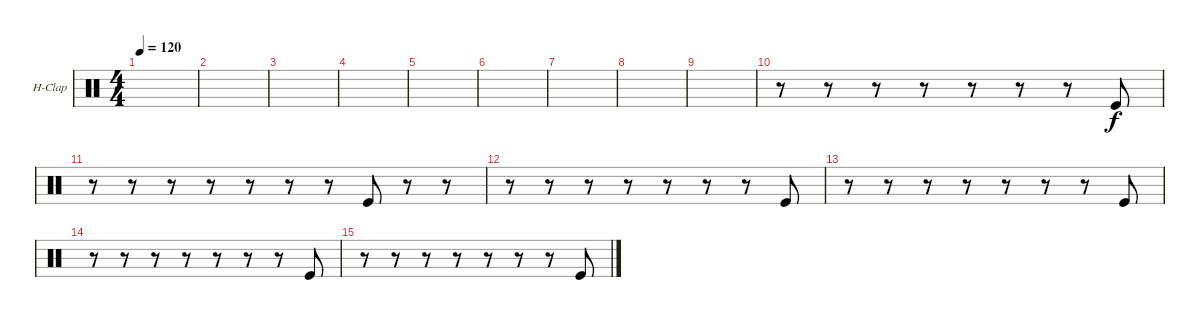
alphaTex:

\defaultSystemsLayout 4
\bracketExtendMode groupsimilarinstruments
\firstSystemTrackNameOrientation horizontal
\otherSystemsTrackNameOrientation horizontal
\track ("Hand Clap" "H-Clap") {instrument percussion}
\staff {score}
\articulation defaults
\ts (4 4)
\tempo 120
\clef neutral
\scale
0.333333
\ks c
|
\scale
0.333333 |
\scale
0.333333 |
\scale
0.333333 |
\scale
0.333333 |
\scale
0.333333 |
\scale
0.333333 |
\scale
0.333333 |
\scale
0.333333 |
\scale
0.333333 r.8 r.8 r.8 r.8 r.8 r.8 r.8 "Kick (hit)".8 |
\scale
0.333333 r.8 r.8 r.8 r.8 r.8 r.8 r.8 "Kick (hit)".8 r.8 r.8 |
\scale
0.333333 r.8 r.8 r.8 r.8 r.8 r.8 r.8 "Kick (hit)".8 |
\scale
0.333333 r.8 r.8 r.8 r.8 r.8 r.8 r.8 "Kick (hit)".8 |
\scale
0.333333 r.8 r.8 r.8 r.8 r.8 r.8 r.8 "Kick (hit)".8 |
\scale
0.333333 r.8 r.8 r.8 r.8 r.8 r.8 r.8 "Kick (hit)".8
